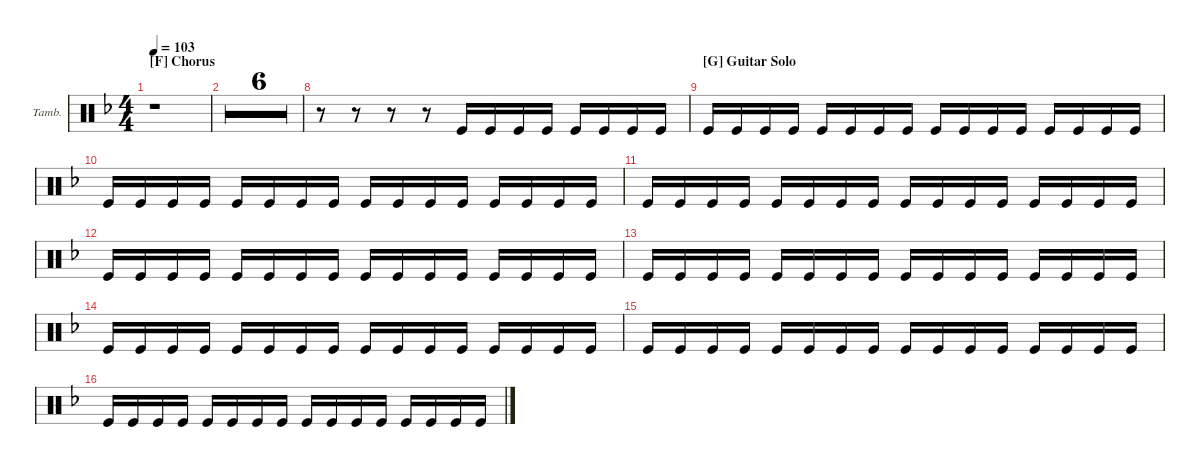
\hideDynamics
\bracketExtendMode groupsimilarinstruments
\firstSystemTrackNameOrientation horizontal
\otherSystemsTrackNameOrientation horizontal
\track ("Tambourine" "Tamb.") {multiBarRest instrument percussion}
\staff {score}
\articulation defaults
\ts (4 4)
\section ("F" "Chorus")
\tempo 103
\clef neutral
\ks f
r.1{dy fff} |
r.1 |
r.1 |
r.1 |
r.1 |
r.1 |
r.1 |
r.8 r.8 r.8 r.8 "Kick (hit)".16 "Kick (hit)".16{dy p} "Kick (hit)".16 "Kick (hit)".16 "Kick (hit)".16{dy fff} "Kick (hit)".16{dy p} "Kick (hit)".16 "Kick (hit)".16 |
\section ("G" "Guitar Solo")
"Kick (hit)".16{dy f} "Kick (hit)".16{dy p} "Kick (hit)".16 "Kick (hit)".16 "Kick (hit)".16{dy f} "Kick (hit)".16{dy p} "Kick (hit)".16 "Kick (hit)".16 "Kick (hit)".16{dy f} "Kick (hit)".16{dy p} "Kick (hit)".16 "Kick (hit)".16 "Kick (hit)".16{dy f} "Kick (hit)".16{dy p} "Kick (hit)".16 "Kick (hit)".16 |
"Kick (hit)".16{dy f} "Kick (hit)".16{dy p} "Kick (hit)".16 "Kick (hit)".16 "Kick (hit)".16{dy f} "Kick (hit)".16{dy p} "Kick (hit)".16 "Kick (hit)".16 "Kick (hit)".16{dy f} "Kick (hit)".16{dy p} "Kick (hit)".16 "Kick (hit)".16 "Kick (hit)".16{dy f} "Kick (hit)".16{dy p} "Kick (hit)".16 "Kick (hit)".16 |
"Kick (hit)".16{dy f} "Kick (hit)".16{dy p} "Kick (hit)".16 "Kick (hit)".16 "Kick (hit)".16{dy f} "Kick (hit)".16{dy p} "Kick (hit)".16 "Kick (hit)".16 "Kick (hit)".16{dy f} "Kick (hit)".16{dy p} "Kick (hit)".16 "Kick (hit)".16 "Kick (hit)".16{dy f} "Kick (hit)".16{dy p} "Kick (hit)".16 "Kick (hit)".16 |
"Kick (hit)".16{dy f} "Kick (hit)".16{dy p} "Kick (hit)".16 "Kick (hit)".16 "Kick (hit)".16{dy f} "Kick (hit)".16{dy p} "Kick (hit)".16 "Kick (hit)".16 "Kick (hit)".16{dy f} "Kick (hit)".16{dy p} "Kick (hit)".16 "Kick (hit)".16 "Kick (hit)".16{dy f} "Kick (hit)".16{dy p} "Kick (hit)".16 "Kick (hit)".16 |
"Kick (hit)".16{dy f} "Kick (hit)".16{dy p} "Kick (hit)".16 "Kick (hit)".16 "Kick (hit)".16{dy f} "Kick (hit)".16{dy p} "Kick (hit)".16 "Kick (hit)".16 "Kick (hit)".16{dy f} "Kick (hit)".16{dy p} "Kick (hit)".16 "Kick (hit)".16 "Kick (hit)".16{dy f} "Kick (hit)".16{dy p} "Kick (hit)".16 "Kick (hit)".16 |
"Kick (hit)".16{dy f} "Kick (hit)".16{dy p} "Kick (hit)".16 "Kick (hit)".16 "Kick (hit)".16{dy f} "Kick (hit)".16{dy p} "Kick (hit)".16 "Kick (hit)".16 "Kick (hit)".16{dy f} "Kick (hit)".16{dy p} "Kick (hit)".16 "Kick (hit)".16 "Kick (hit)".16{dy f} "Kick (hit)".16{dy p} "Kick (hit)".16 "Kick (hit)".16 |
"Kick (hit)".16{dy f} "Kick (hit)".16{dy p} "Kick (hit)".16 "Kick (hit)".16 "Kick (hit)".16{dy f} "Kick (hit)".16{dy p} "Kick (hit)".16 "Kick (hit)".16 "Kick (hit)".16{dy f} "Kick (hit)".16{dy p} "Kick (hit)".16 "Kick (hit)".16 "Kick (hit)".16{dy f} "Kick (hit)".16{dy p} "Kick (hit)".16 "Kick (hit)".16 |
"Kick (hit)".16{dy f} "Kick (hit)".16{dy p} "Kick (hit)".16 "Kick (hit)".16 "Kick (hit)".16{dy f} "Kick (hit)".16{dy p} "Kick (hit)".16 "Kick (hit)".16 "Kick (hit)".16{dy f} "Kick (hit)".16{dy p} "Kick (hit)".16 "Kick (hit)".16 "Kick (hit)".16{dy f} "Kick (hit)".16{dy p} "Kick (hit)".16 "Kick (hit)".16
